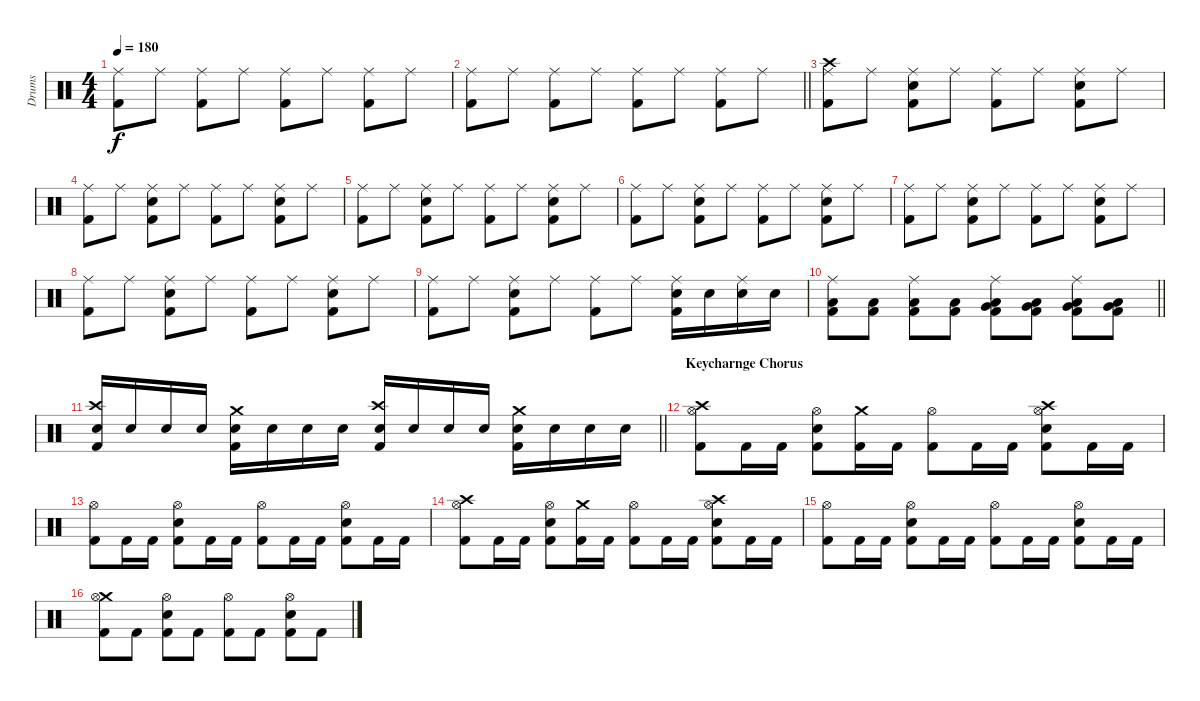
\track ("Drums" "Drums") {instrument percussion}
\staff {score}
\articulation defaults
\ts (4 4)
\tempo 180
\clef neutral
\ks c
("Ride (middle)" "Kick (hit) 2").8{dy f} "Ride (middle)".8 ("Ride (middle)" "Kick (hit) 2").8 "Ride (middle)".8 ("Ride (middle)" "Kick (hit) 2").8 "Ride (middle)".8 ("Ride (middle)" "Kick (hit) 2").8 "Ride (middle)".8 |
\barLineRight lightlight
("Ride (middle)" "Kick (hit) 2").8 "Ride (middle)".8 ("Ride (middle)" "Kick (hit) 2").8 "Ride (middle)".8 ("Ride (middle)" "Kick (hit) 2").8 "Ride (middle)".8 ("Ride (middle)" "Kick (hit) 2").8 "Ride (middle)".8 |
("Crash high (hit)" "Ride (middle)" "Kick (hit) 2").8 "Ride (middle)".8 ("Ride (middle)" "Snare (hit) 2" "Kick (hit) 2").8 "Ride (middle)".8 ("Ride (middle)" "Kick (hit) 2").8 "Ride (middle)".8 ("Ride (middle)" "Snare (hit) 2" "Kick (hit) 2").8 "Ride (middle)".8 |
("Ride (middle)" "Kick (hit) 2").8 "Ride (middle)".8 ("Ride (middle)" "Snare (hit) 2" "Kick (hit) 2").8 "Ride (middle)".8 ("Ride (middle)" "Kick (hit) 2").8 "Ride (middle)".8 ("Ride (middle)" "Snare (hit) 2" "Kick (hit) 2").8 "Ride (middle)".8 |
("Ride (middle)" "Kick (hit) 2").8 "Ride (middle)".8 ("Ride (middle)" "Snare (hit) 2" "Kick (hit) 2").8 "Ride (middle)".8 ("Ride (middle)" "Kick (hit) 2").8 "Ride (middle)".8 ("Ride (middle)" "Snare (hit) 2" "Kick (hit) 2").8 "Ride (middle)".8 |
("Ride (middle)" "Kick (hit) 2").8 "Ride (middle)".8 ("Ride (middle)" "Snare (hit) 2" "Kick (hit) 2").8 "Ride (middle)".8 ("Ride (middle)" "Kick (hit) 2").8 "Ride (middle)".8 ("Ride (middle)" "Snare (hit) 2" "Kick (hit) 2").8 "Ride (middle)".8 |
("Ride (middle)" "Kick (hit) 2").8 "Ride (middle)".8 ("Ride (middle)" "Snare (hit) 2" "Kick (hit) 2").8 "Ride (middle)".8 ("Ride (middle)" "Kick (hit) 2").8 "Ride (middle)".8 ("Ride (middle)" "Snare (hit) 2" "Kick (hit) 2").8 "Ride (middle)".8 |
("Ride (middle)" "Kick (hit) 2").8 "Ride (middle)".8 ("Ride (middle)" "Snare (hit) 2" "Kick (hit) 2").8 "Ride (middle)".8 ("Ride (middle)" "Kick (hit) 2").8 "Ride (middle)".8 ("Ride (middle)" "Snare (hit) 2" "Kick (hit) 2").8 "Ride (middle)".8 |
("Ride (middle)" "Kick (hit) 2").8 "Ride (middle)".8 ("Ride (middle)" "Snare (hit) 2" "Kick (hit) 2").8 "Ride (middle)".8 ("Ride (middle)" "Kick (hit) 2").8 "Ride (middle)".8 ("Ride (middle)" "Snare (hit) 2" "Kick (hit) 2").16 "Snare (hit) 2".16 ("Ride (middle)" "Snare (hit) 2").16 "Snare (hit) 2".16 |
\barLineRight lightlight
("Ride (middle)" "Low Floor Tom (hit)" "Kick (hit) 2").8 ("Low Floor Tom (hit)" "Kick (hit) 2").8 ("Ride (middle)" "Low Floor Tom (hit)" "Kick (hit) 2").8 ("Low Floor Tom (hit)" "Kick (hit) 2").8 ("Ride (middle)" "Very Low Tom (hit)" "Low Floor Tom (hit)" "Kick (hit) 2").8 ("Very Low Tom (hit)" "Low Floor Tom (hit)" "Kick (hit) 2").8 ("Ride (middle)" "Very Low Tom (hit)" "Low Floor Tom (hit)" "Kick (hit) 2").8 ("Very Low Tom (hit)" "Low Floor Tom (hit)" "Kick (hit) 2").8 |
\barLineRight lightlight
("Crash high (hit)" "Snare (hit) 2" "Kick (hit) 2").16 "Snare (hit) 2".16 "Snare (hit) 2".16 "Snare (hit) 2".16 ("Crash medium (hit)" "Snare (hit) 2" "Kick (hit) 2").16 "Snare (hit) 2".16 "Snare (hit) 2".16 "Snare (hit) 2".16 ("Crash high (hit)" "Snare (hit) 2" "Kick (hit) 2").16 "Snare (hit) 2".16 "Snare (hit) 2".16 "Snare (hit) 2".16 ("Crash medium (hit)" "Snare (hit) 2" "Kick (hit) 2").16 "Snare (hit) 2".16 "Snare (hit) 2".16 "Snare (hit) 2".16 |
\section ("" "Keycharnge Chorus")
("Crash high (hit)" "Hi-Hat (open)" "Kick (hit) 2").8 "Kick (hit) 2".16 "Kick (hit) 2".16 ("Hi-Hat (open)" "Snare (hit) 2" "Kick (hit) 2").8 ("Crash medium (hit)" "Kick (hit) 2").16 "Kick (hit) 2".16 ("Hi-Hat (open)" "Kick (hit) 2").8 "Kick (hit) 2".16 "Kick (hit) 2".16 ("Crash high (hit)" "Hi-Hat (open)" "Snare (hit) 2" "Kick (hit) 2").8 "Kick (hit) 2".16 "Kick (hit) 2".16 |
("Hi-Hat (open)" "Kick (hit) 2").8 "Kick (hit) 2".16 "Kick (hit) 2".16 ("Hi-Hat (open)" "Snare (hit) 2" "Kick (hit) 2").8 "Kick (hit) 2".16 "Kick (hit) 2".16 ("Hi-Hat (open)" "Kick (hit) 2").8 "Kick (hit) 2".16 "Kick (hit) 2".16 ("Hi-Hat (open)" "Snare (hit) 2" "Kick (hit) 2").8 "Kick (hit) 2".16 "Kick (hit) 2".16 |
("Crash high (hit)" "Hi-Hat (open)" "Kick (hit) 2").8 "Kick (hit) 2".16 "Kick (hit) 2".16 ("Hi-Hat (open)" "Snare (hit) 2" "Kick (hit) 2").8 ("Crash medium (hit)" "Kick (hit) 2").16 "Kick (hit) 2".16 ("Hi-Hat (open)" "Kick (hit) 2").8 "Kick (hit) 2".16 "Kick (hit) 2".16 ("Crash high (hit)" "Hi-Hat (open)" "Snare (hit) 2" "Kick (hit) 2").8 "Kick (hit) 2".16 "Kick (hit) 2".16 |
("Hi-Hat (open)" "Kick (hit) 2").8 "Kick (hit) 2".16 "Kick (hit) 2".16 ("Hi-Hat (open)" "Snare (hit) 2" "Kick (hit) 2").8 "Kick (hit) 2".16 "Kick (hit) 2".16 ("Hi-Hat (open)" "Kick (hit) 2").8 "Kick (hit) 2".16 "Kick (hit) 2".16 ("Hi-Hat (open)" "Snare (hit) 2" "Kick (hit) 2").8 "Kick (hit) 2".16 "Kick (hit) 2".16 |
("Crash medium (hit)" "Hi-Hat (open)" "Kick (hit) 2").8 "Kick (hit) 2".8 ("Hi-Hat (open)" "Snare (hit) 2" "Kick (hit) 2").8 "Kick (hit) 2".8 ("Hi-Hat (open)" "Kick (hit) 2").8 "Kick (hit) 2".8 ("Hi-Hat (open)" "Snare (hit) 2" "Kick (hit) 2").8 "Kick (hit) 2".8
